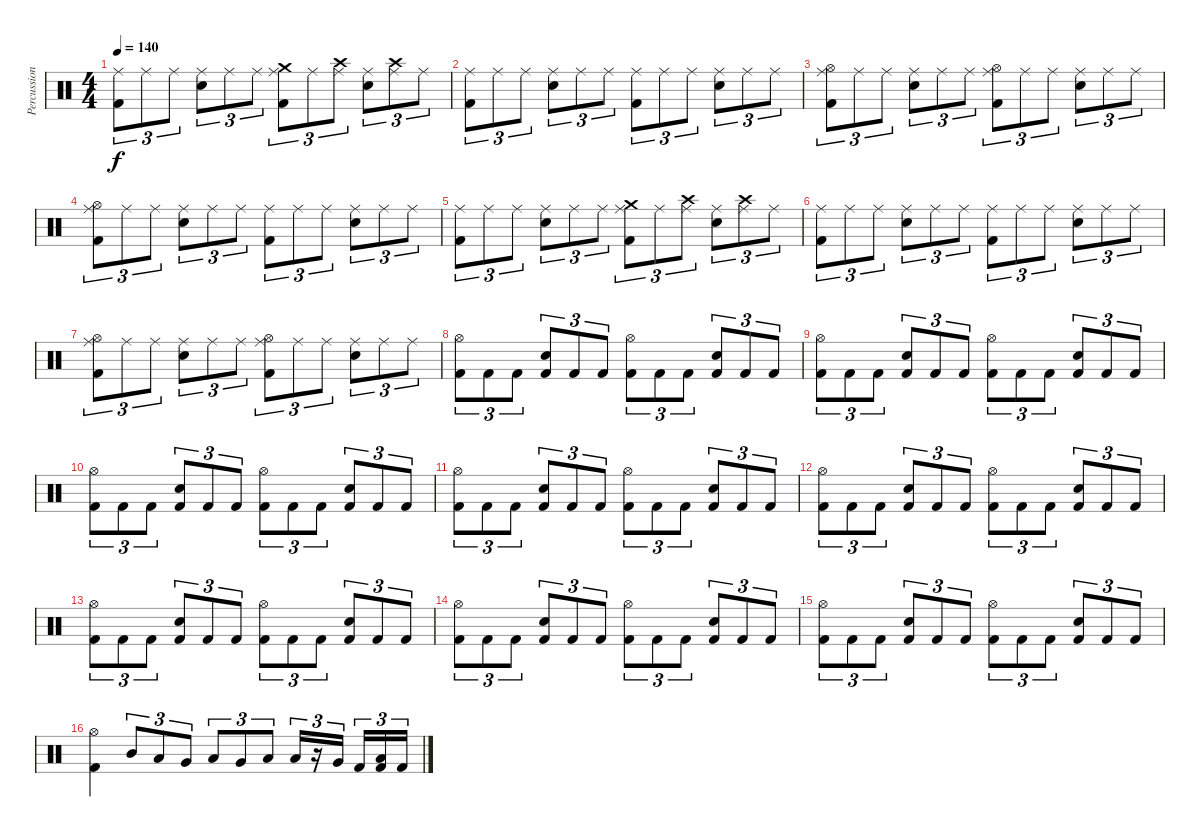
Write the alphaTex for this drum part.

\track ("Percussion" "Percussion") {instrument percussion}
\staff {score}
\articulation defaults
\ts (4 4)
\tempo 140
\clef neutral
\ks c
("Ride (middle)" "Kick (hit) 2").8{tu (3 2) dy f} "Ride (middle)".8{tu (3 2)} "Ride (middle)".8{tu (3 2)} ("Ride (middle)" "Snare (hit) 2").8{tu (3 2)} "Ride (middle)".8{tu (3 2)} "Ride (middle)".8{tu (3 2)} ("Ride (middle)" "Crash medium (hit)" "Kick (hit) 2").8{tu (3 2)} "Ride (middle)".8{tu (3 2)} ("Ride (middle)" "Crash high (hit)").8{tu (3 2)} ("Ride (middle)" "Snare (hit) 2").8{tu (3 2)} ("Ride (middle)" "Crash high (hit)").8{tu (3 2)} "Ride (middle)".8{tu (3 2)} |
("Ride (middle)" "Kick (hit) 2").8{tu (3 2)} "Ride (middle)".8{tu (3 2)} "Ride (middle)".8{tu (3 2)} ("Ride (middle)" "Snare (hit) 2").8{tu (3 2)} "Ride (middle)".8{tu (3 2)} "Ride (middle)".8{tu (3 2)} ("Ride (middle)" "Kick (hit) 2").8{tu (3 2)} "Ride (middle)".8{tu (3 2)} "Ride (middle)".8{tu (3 2)} ("Ride (middle)" "Snare (hit) 2").8{tu (3 2)} "Ride (middle)".8{tu (3 2)} "Ride (middle)".8{tu (3 2)} |
("Ride (middle)" "Hi-Hat (open)" "Kick (hit) 2").8{tu (3 2)} "Ride (middle)".8{tu (3 2)} "Ride (middle)".8{tu (3 2)} ("Ride (middle)" "Snare (hit) 2").8{tu (3 2)} "Ride (middle)".8{tu (3 2)} "Ride (middle)".8{tu (3 2)} ("Ride (middle)" "Hi-Hat (open)" "Kick (hit) 2").8{tu (3 2)} "Ride (middle)".8{tu (3 2)} "Ride (middle)".8{tu (3 2)} ("Ride (middle)" "Snare (hit) 2").8{tu (3 2)} "Ride (middle)".8{tu (3 2)} "Ride (middle)".8{tu (3 2)} |
("Ride (middle)" "Hi-Hat (open)" "Kick (hit) 2").8{tu (3 2)} "Ride (middle)".8{tu (3 2)} "Ride (middle)".8{tu (3 2)} ("Ride (middle)" "Snare (hit) 2").8{tu (3 2)} "Ride (middle)".8{tu (3 2)} "Ride (middle)".8{tu (3 2)} ("Ride (middle)" "Kick (hit) 2").8{tu (3 2)} "Ride (middle)".8{tu (3 2)} "Ride (middle)".8{tu (3 2)} ("Ride (middle)" "Snare (hit) 2").8{tu (3 2)} "Ride (middle)".8{tu (3 2)} "Ride (middle)".8{tu (3 2)} |
("Ride (middle)" "Kick (hit) 2").8{tu (3 2)} "Ride (middle)".8{tu (3 2)} "Ride (middle)".8{tu (3 2)} ("Ride (middle)" "Snare (hit) 2").8{tu (3 2)} "Ride (middle)".8{tu (3 2)} "Ride (middle)".8{tu (3 2)} ("Ride (middle)" "Crash medium (hit)" "Kick (hit) 2").8{tu (3 2)} "Ride (middle)".8{tu (3 2)} ("Ride (middle)" "Crash high (hit)").8{tu (3 2)} ("Ride (middle)" "Snare (hit) 2").8{tu (3 2)} ("Ride (middle)" "Crash high (hit)").8{tu (3 2)} "Ride (middle)".8{tu (3 2)} |
("Ride (middle)" "Kick (hit) 2").8{tu (3 2)} "Ride (middle)".8{tu (3 2)} "Ride (middle)".8{tu (3 2)} ("Ride (middle)" "Snare (hit) 2").8{tu (3 2)} "Ride (middle)".8{tu (3 2)} "Ride (middle)".8{tu (3 2)} ("Ride (middle)" "Kick (hit) 2").8{tu (3 2)} "Ride (middle)".8{tu (3 2)} "Ride (middle)".8{tu (3 2)} ("Ride (middle)" "Snare (hit) 2").8{tu (3 2)} "Ride (middle)".8{tu (3 2)} "Ride (middle)".8{tu (3 2)} |
("Ride (middle)" "Hi-Hat (open)" "Kick (hit) 2").8{tu (3 2)} "Ride (middle)".8{tu (3 2)} "Ride (middle)".8{tu (3 2)} ("Ride (middle)" "Snare (hit) 2").8{tu (3 2)} "Ride (middle)".8{tu (3 2)} "Ride (middle)".8{tu (3 2)} ("Ride (middle)" "Hi-Hat (open)" "Kick (hit) 2").8{tu (3 2)} "Ride (middle)".8{tu (3 2)} "Ride (middle)".8{tu (3 2)} ("Ride (middle)" "Snare (hit) 2").8{tu (3 2)} "Ride (middle)".8{tu (3 2)} "Ride (middle)".8{tu (3 2)} |
("Hi-Hat (open)" "Kick (hit) 2").8{tu (3 2)} "Kick (hit) 2".8{tu (3 2)} "Kick (hit) 2".8{tu (3 2)} ("Snare (hit) 2" "Kick (hit) 2").8{tu (3 2)} "Kick (hit) 2".8{tu (3 2)} "Kick (hit) 2".8{tu (3 2)} ("Hi-Hat (open)" "Kick (hit) 2").8{tu (3 2)} "Kick (hit) 2".8{tu (3 2)} "Kick (hit) 2".8{tu (3 2)} ("Snare (hit) 2" "Kick (hit) 2").8{tu (3 2)} "Kick (hit) 2".8{tu (3 2)} "Kick (hit) 2".8{tu (3 2)} |
("Hi-Hat (open)" "Kick (hit) 2").8{tu (3 2)} "Kick (hit) 2".8{tu (3 2)} "Kick (hit) 2".8{tu (3 2)} ("Snare (hit) 2" "Kick (hit) 2").8{tu (3 2)} "Kick (hit) 2".8{tu (3 2)} "Kick (hit) 2".8{tu (3 2)} ("Hi-Hat (open)" "Kick (hit) 2").8{tu (3 2)} "Kick (hit) 2".8{tu (3 2)} "Kick (hit) 2".8{tu (3 2)} ("Snare (hit) 2" "Kick (hit) 2").8{tu (3 2)} "Kick (hit) 2".8{tu (3 2)} "Kick (hit) 2".8{tu (3 2)} |
("Hi-Hat (open)" "Kick (hit) 2").8{tu (3 2)} "Kick (hit) 2".8{tu (3 2)} "Kick (hit) 2".8{tu (3 2)} ("Snare (hit) 2" "Kick (hit) 2").8{tu (3 2)} "Kick (hit) 2".8{tu (3 2)} "Kick (hit) 2".8{tu (3 2)} ("Hi-Hat (open)" "Kick (hit) 2").8{tu (3 2)} "Kick (hit) 2".8{tu (3 2)} "Kick (hit) 2".8{tu (3 2)} ("Snare (hit) 2" "Kick (hit) 2").8{tu (3 2)} "Kick (hit) 2".8{tu (3 2)} "Kick (hit) 2".8{tu (3 2)} |
("Hi-Hat (open)" "Kick (hit) 2").8{tu (3 2)} "Kick (hit) 2".8{tu (3 2)} "Kick (hit) 2".8{tu (3 2)} ("Snare (hit) 2" "Kick (hit) 2").8{tu (3 2)} "Kick (hit) 2".8{tu (3 2)} "Kick (hit) 2".8{tu (3 2)} ("Hi-Hat (open)" "Kick (hit) 2").8{tu (3 2)} "Kick (hit) 2".8{tu (3 2)} "Kick (hit) 2".8{tu (3 2)} ("Snare (hit) 2" "Kick (hit) 2").8{tu (3 2)} "Kick (hit) 2".8{tu (3 2)} "Kick (hit) 2".8{tu (3 2)} |
("Hi-Hat (open)" "Kick (hit) 2").8{tu (3 2)} "Kick (hit) 2".8{tu (3 2)} "Kick (hit) 2".8{tu (3 2)} ("Snare (hit) 2" "Kick (hit) 2").8{tu (3 2)} "Kick (hit) 2".8{tu (3 2)} "Kick (hit) 2".8{tu (3 2)} ("Hi-Hat (open)" "Kick (hit) 2").8{tu (3 2)} "Kick (hit) 2".8{tu (3 2)} "Kick (hit) 2".8{tu (3 2)} ("Snare (hit) 2" "Kick (hit) 2").8{tu (3 2)} "Kick (hit) 2".8{tu (3 2)} "Kick (hit) 2".8{tu (3 2)} |
("Hi-Hat (open)" "Kick (hit) 2").8{tu (3 2)} "Kick (hit) 2".8{tu (3 2)} "Kick (hit) 2".8{tu (3 2)} ("Snare (hit) 2" "Kick (hit) 2").8{tu (3 2)} "Kick (hit) 2".8{tu (3 2)} "Kick (hit) 2".8{tu (3 2)} ("Hi-Hat (open)" "Kick (hit) 2").8{tu (3 2)} "Kick (hit) 2".8{tu (3 2)} "Kick (hit) 2".8{tu (3 2)} ("Snare (hit) 2" "Kick (hit) 2").8{tu (3 2)} "Kick (hit) 2".8{tu (3 2)} "Kick (hit) 2".8{tu (3 2)} |
("Hi-Hat (open)" "Kick (hit) 2").8{tu (3 2)} "Kick (hit) 2".8{tu (3 2)} "Kick (hit) 2".8{tu (3 2)} ("Snare (hit) 2" "Kick (hit) 2").8{tu (3 2)} "Kick (hit) 2".8{tu (3 2)} "Kick (hit) 2".8{tu (3 2)} ("Hi-Hat (open)" "Kick (hit) 2").8{tu (3 2)} "Kick (hit) 2".8{tu (3 2)} "Kick (hit) 2".8{tu (3 2)} ("Snare (hit) 2" "Kick (hit) 2").8{tu (3 2)} "Kick (hit) 2".8{tu (3 2)} "Kick (hit) 2".8{tu (3 2)} |
("Hi-Hat (open)" "Kick (hit) 2").8{tu (3 2)} "Kick (hit) 2".8{tu (3 2)} "Kick (hit) 2".8{tu (3 2)} ("Snare (hit) 2" "Kick (hit) 2").8{tu (3 2)} "Kick (hit) 2".8{tu (3 2)} "Kick (hit) 2".8{tu (3 2)} ("Hi-Hat (open)" "Kick (hit) 2").8{tu (3 2)} "Kick (hit) 2".8{tu (3 2)} "Kick (hit) 2".8{tu (3 2)} ("Snare (hit) 2" "Kick (hit) 2").8{tu (3 2)} "Kick (hit) 2".8{tu (3 2)} "Kick (hit) 2".8{tu (3 2)} |
("Hi-Hat (open)" "Kick (hit) 2").4 "Mid Tom (hit)".8{tu (3 2)} "Low Tom (hit)".8{tu (3 2)} "Very Low Tom (hit)".8{tu (3 2)} "Low Tom (hit)".8{tu (3 2)} "Very Low Tom (hit)".8{tu (3 2)} "Low Floor Tom (hit)".8{tu (3 2)} "Low Tom (hit)".16{tu (3 2)} r.16{tu (3 2)} "Very Low Tom (hit)".16{tu (3 2) beam splitsecondary} "Kick (hit) 2".16{tu (3 2)} ("Low Floor Tom (hit)" "Kick (hit) 2").16{tu (3 2)} "Kick (hit) 2".16{tu (3 2)}
